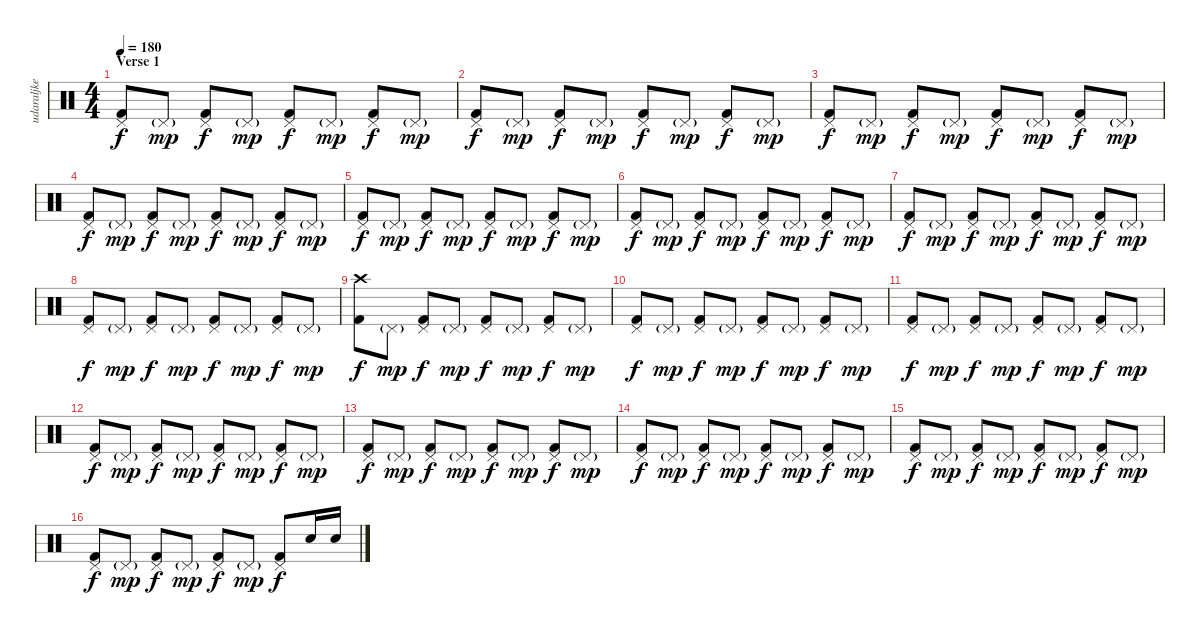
\track ("udaraljke" "udaraljke") {instrument percussion}
\staff {score}
\articulation defaults
\ts (4 4)
\section ("" "Verse 1")
\tempo 180
\clef neutral
\ks c
("Pedal Hi-Hat (hit)" "Kick (hit) 2").8{dy f} "Pedal Hi-Hat (hit)"{g}.8{dy mp} ("Pedal Hi-Hat (hit)" "Kick (hit) 2").8{dy f} "Pedal Hi-Hat (hit)"{g}.8{dy mp} ("Pedal Hi-Hat (hit)" "Kick (hit) 2").8{dy f} "Pedal Hi-Hat (hit)"{g}.8{dy mp} ("Pedal Hi-Hat (hit)" "Kick (hit) 2").8{dy f} "Pedal Hi-Hat (hit)"{g}.8{dy mp} |
("Pedal Hi-Hat (hit)" "Kick (hit) 2").8{dy f} "Pedal Hi-Hat (hit)"{g}.8{dy mp} ("Pedal Hi-Hat (hit)" "Kick (hit) 2").8{dy f} "Pedal Hi-Hat (hit)"{g}.8{dy mp} ("Pedal Hi-Hat (hit)" "Kick (hit) 2").8{dy f} "Pedal Hi-Hat (hit)"{g}.8{dy mp} ("Pedal Hi-Hat (hit)" "Kick (hit) 2").8{dy f} "Pedal Hi-Hat (hit)"{g}.8{dy mp} |
("Pedal Hi-Hat (hit)" "Kick (hit) 2").8{dy f} "Pedal Hi-Hat (hit)"{g}.8{dy mp} ("Pedal Hi-Hat (hit)" "Kick (hit) 2").8{dy f} "Pedal Hi-Hat (hit)"{g}.8{dy mp} ("Pedal Hi-Hat (hit)" "Kick (hit) 2").8{dy f} "Pedal Hi-Hat (hit)"{g}.8{dy mp} ("Pedal Hi-Hat (hit)" "Kick (hit) 2").8{dy f} "Pedal Hi-Hat (hit)"{g}.8{dy mp} |
("Pedal Hi-Hat (hit)" "Kick (hit) 2").8{dy f} "Pedal Hi-Hat (hit)"{g}.8{dy mp} ("Pedal Hi-Hat (hit)" "Kick (hit) 2").8{dy f} "Pedal Hi-Hat (hit)"{g}.8{dy mp} ("Pedal Hi-Hat (hit)" "Kick (hit) 2").8{dy f} "Pedal Hi-Hat (hit)"{g}.8{dy mp} ("Pedal Hi-Hat (hit)" "Kick (hit) 2").8{dy f} "Pedal Hi-Hat (hit)"{g}.8{dy mp} |
("Pedal Hi-Hat (hit)" "Kick (hit) 2").8{dy f} "Pedal Hi-Hat (hit)"{g}.8{dy mp} ("Pedal Hi-Hat (hit)" "Kick (hit) 2").8{dy f} "Pedal Hi-Hat (hit)"{g}.8{dy mp} ("Pedal Hi-Hat (hit)" "Kick (hit) 2").8{dy f} "Pedal Hi-Hat (hit)"{g}.8{dy mp} ("Pedal Hi-Hat (hit)" "Kick (hit) 2").8{dy f} "Pedal Hi-Hat (hit)"{g}.8{dy mp} |
("Pedal Hi-Hat (hit)" "Kick (hit) 2").8{dy f} "Pedal Hi-Hat (hit)"{g}.8{dy mp} ("Pedal Hi-Hat (hit)" "Kick (hit) 2").8{dy f} "Pedal Hi-Hat (hit)"{g}.8{dy mp} ("Pedal Hi-Hat (hit)" "Kick (hit) 2").8{dy f} "Pedal Hi-Hat (hit)"{g}.8{dy mp} ("Pedal Hi-Hat (hit)" "Kick (hit) 2").8{dy f} "Pedal Hi-Hat (hit)"{g}.8{dy mp} |
("Pedal Hi-Hat (hit)" "Kick (hit) 2").8{dy f} "Pedal Hi-Hat (hit)"{g}.8{dy mp} ("Pedal Hi-Hat (hit)" "Kick (hit) 2").8{dy f} "Pedal Hi-Hat (hit)"{g}.8{dy mp} ("Pedal Hi-Hat (hit)" "Kick (hit) 2").8{dy f} "Pedal Hi-Hat (hit)"{g}.8{dy mp} ("Pedal Hi-Hat (hit)" "Kick (hit) 2").8{dy f} "Pedal Hi-Hat (hit)"{g}.8{dy mp} |
("Pedal Hi-Hat (hit)" "Kick (hit) 2").8{dy f} "Pedal Hi-Hat (hit)"{g}.8{dy mp} ("Pedal Hi-Hat (hit)" "Kick (hit) 2").8{dy f} "Pedal Hi-Hat (hit)"{g}.8{dy mp} ("Pedal Hi-Hat (hit)" "Kick (hit) 2").8{dy f} "Pedal Hi-Hat (hit)"{g}.8{dy mp} ("Pedal Hi-Hat (hit)" "Kick (hit) 2").8{dy f} "Pedal Hi-Hat (hit)"{g}.8{dy mp} |
("Crash high (hit)" "Kick (hit) 2").8{dy f} "Pedal Hi-Hat (hit)"{g}.8{dy mp} ("Pedal Hi-Hat (hit)" "Kick (hit) 2").8{dy f} "Pedal Hi-Hat (hit)"{g}.8{dy mp} ("Pedal Hi-Hat (hit)" "Kick (hit) 2").8{dy f} "Pedal Hi-Hat (hit)"{g}.8{dy mp} ("Pedal Hi-Hat (hit)" "Kick (hit) 2").8{dy f} "Pedal Hi-Hat (hit)"{g}.8{dy mp} |
("Pedal Hi-Hat (hit)" "Kick (hit) 2").8{dy f} "Pedal Hi-Hat (hit)"{g}.8{dy mp} ("Pedal Hi-Hat (hit)" "Kick (hit) 2").8{dy f} "Pedal Hi-Hat (hit)"{g}.8{dy mp} ("Pedal Hi-Hat (hit)" "Kick (hit) 2").8{dy f} "Pedal Hi-Hat (hit)"{g}.8{dy mp} ("Pedal Hi-Hat (hit)" "Kick (hit) 2").8{dy f} "Pedal Hi-Hat (hit)"{g}.8{dy mp} |
("Pedal Hi-Hat (hit)" "Kick (hit) 2").8{dy f} "Pedal Hi-Hat (hit)"{g}.8{dy mp} ("Pedal Hi-Hat (hit)" "Kick (hit) 2").8{dy f} "Pedal Hi-Hat (hit)"{g}.8{dy mp} ("Pedal Hi-Hat (hit)" "Kick (hit) 2").8{dy f} "Pedal Hi-Hat (hit)"{g}.8{dy mp} ("Pedal Hi-Hat (hit)" "Kick (hit) 2").8{dy f} "Pedal Hi-Hat (hit)"{g}.8{dy mp} |
("Pedal Hi-Hat (hit)" "Kick (hit) 2").8{dy f} "Pedal Hi-Hat (hit)"{g}.8{dy mp} ("Pedal Hi-Hat (hit)" "Kick (hit) 2").8{dy f} "Pedal Hi-Hat (hit)"{g}.8{dy mp} ("Pedal Hi-Hat (hit)" "Kick (hit) 2").8{dy f} "Pedal Hi-Hat (hit)"{g}.8{dy mp} ("Pedal Hi-Hat (hit)" "Kick (hit) 2").8{dy f} "Pedal Hi-Hat (hit)"{g}.8{dy mp} |
("Pedal Hi-Hat (hit)" "Kick (hit) 2").8{dy f} "Pedal Hi-Hat (hit)"{g}.8{dy mp} ("Pedal Hi-Hat (hit)" "Kick (hit) 2").8{dy f} "Pedal Hi-Hat (hit)"{g}.8{dy mp} ("Pedal Hi-Hat (hit)" "Kick (hit) 2").8{dy f} "Pedal Hi-Hat (hit)"{g}.8{dy mp} ("Pedal Hi-Hat (hit)" "Kick (hit) 2").8{dy f} "Pedal Hi-Hat (hit)"{g}.8{dy mp} |
("Pedal Hi-Hat (hit)" "Kick (hit) 2").8{dy f} "Pedal Hi-Hat (hit)"{g}.8{dy mp} ("Pedal Hi-Hat (hit)" "Kick (hit) 2").8{dy f} "Pedal Hi-Hat (hit)"{g}.8{dy mp} ("Pedal Hi-Hat (hit)" "Kick (hit) 2").8{dy f} "Pedal Hi-Hat (hit)"{g}.8{dy mp} ("Pedal Hi-Hat (hit)" "Kick (hit) 2").8{dy f} "Pedal Hi-Hat (hit)"{g}.8{dy mp} |
("Pedal Hi-Hat (hit)" "Kick (hit) 2").8{dy f} "Pedal Hi-Hat (hit)"{g}.8{dy mp} ("Pedal Hi-Hat (hit)" "Kick (hit) 2").8{dy f} "Pedal Hi-Hat (hit)"{g}.8{dy mp} ("Pedal Hi-Hat (hit)" "Kick (hit) 2").8{dy f} "Pedal Hi-Hat (hit)"{g}.8{dy mp} ("Pedal Hi-Hat (hit)" "Kick (hit) 2").8{dy f} "Pedal Hi-Hat (hit)"{g}.8{dy mp} |
("Pedal Hi-Hat (hit)" "Kick (hit) 2").8{dy f} "Pedal Hi-Hat (hit)"{g}.8{dy mp} ("Pedal Hi-Hat (hit)" "Kick (hit) 2").8{dy f} "Pedal Hi-Hat (hit)"{g}.8{dy mp} ("Pedal Hi-Hat (hit)" "Kick (hit) 2").8{dy f} "Pedal Hi-Hat (hit)"{g}.8{dy mp} ("Pedal Hi-Hat (hit)" "Kick (hit) 2").8{dy f} "Snare (hit) 2".16 "Snare (hit) 2".16
